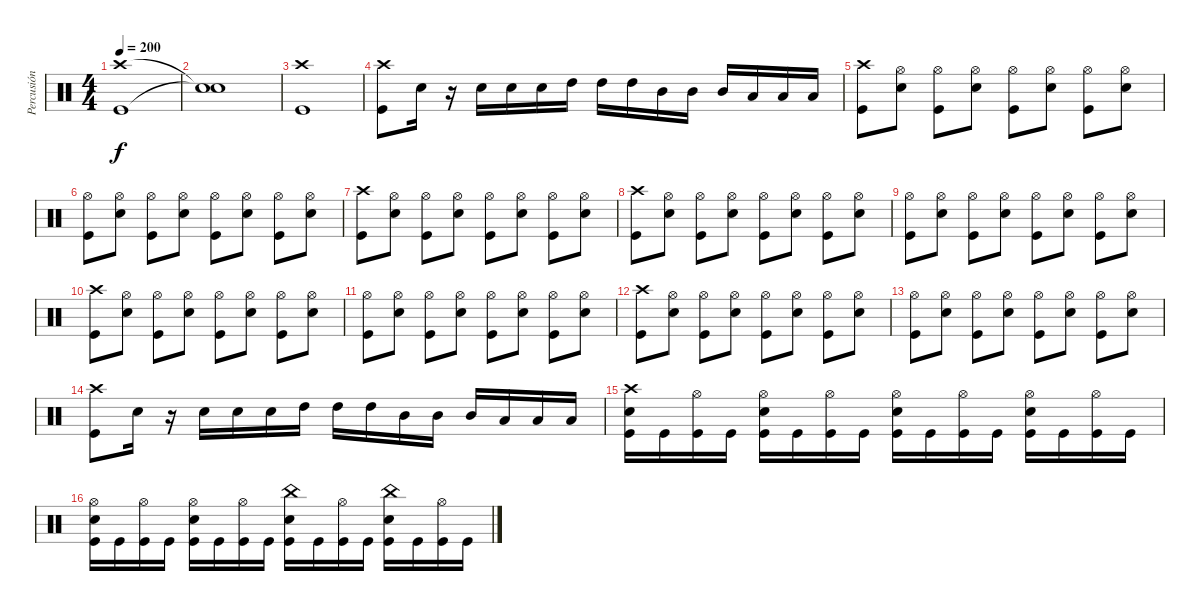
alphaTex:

\track ("Percusión" "Percusión") {instrument percussion}
\staff {score}
\articulation defaults
\ts (4 4)
\tempo 200
\clef neutral
\ks c
("Crash high (hit)" "Kick (hit)").1{dy f} |
("Snare (hit)"{t} "Snare (hit)"{t}).1 |
("Crash high (hit)" "Kick (hit)").1 |
("Crash high (hit)" "Kick (hit)").8 "Snare (hit) 2".16 r.16 "Snare (hit) 2".16 "Snare (hit) 2".16 "Snare (hit) 2".16 "High Tom (hit)".16 "High Tom (hit)".16 "High Tom (hit)".16 "Mid Tom (hit)".16 "Mid Tom (hit)".16 "Mid Tom (hit)".16 "Low Tom (hit)".16 "Low Tom (hit)".16 "Low Tom (hit)".16 |
("Crash high (hit)" "Kick (hit)").8 ("Hi-Hat (open)" "Snare (hit) 2").8 ("Hi-Hat (open)" "Kick (hit)").8 ("Hi-Hat (open)" "Snare (hit) 2").8 ("Hi-Hat (open)" "Kick (hit)").8 ("Hi-Hat (open)" "Snare (hit) 2").8 ("Hi-Hat (open)" "Kick (hit)").8 ("Hi-Hat (open)" "Snare (hit) 2").8 |
("Hi-Hat (open)" "Kick (hit)").8 ("Hi-Hat (open)" "Snare (hit) 2").8 ("Hi-Hat (open)" "Kick (hit)").8 ("Hi-Hat (open)" "Snare (hit) 2").8 ("Hi-Hat (open)" "Kick (hit)").8 ("Hi-Hat (open)" "Snare (hit) 2").8 ("Hi-Hat (open)" "Kick (hit)").8 ("Hi-Hat (open)" "Snare (hit) 2").8 |
("Crash high (hit)" "Kick (hit)").8 ("Hi-Hat (open)" "Snare (hit) 2").8 ("Hi-Hat (open)" "Kick (hit)").8 ("Hi-Hat (open)" "Snare (hit) 2").8 ("Hi-Hat (open)" "Kick (hit)").8 ("Hi-Hat (open)" "Snare (hit) 2").8 ("Hi-Hat (open)" "Kick (hit)").8 ("Hi-Hat (open)" "Snare (hit) 2").8 |
("Crash high (hit)" "Kick (hit)").8 ("Hi-Hat (open)" "Snare (hit) 2").8 ("Hi-Hat (open)" "Kick (hit)").8 ("Hi-Hat (open)" "Snare (hit) 2").8 ("Hi-Hat (open)" "Kick (hit)").8 ("Hi-Hat (open)" "Snare (hit) 2").8 ("Hi-Hat (open)" "Kick (hit)").8 ("Hi-Hat (open)" "Snare (hit) 2").8 |
("Hi-Hat (open)" "Kick (hit)").8 ("Hi-Hat (open)" "Snare (hit) 2").8 ("Hi-Hat (open)" "Kick (hit)").8 ("Hi-Hat (open)" "Snare (hit) 2").8 ("Hi-Hat (open)" "Kick (hit)").8 ("Hi-Hat (open)" "Snare (hit) 2").8 ("Hi-Hat (open)" "Kick (hit)").8 ("Hi-Hat (open)" "Snare (hit) 2").8 |
("Crash high (hit)" "Kick (hit)").8 ("Hi-Hat (open)" "Snare (hit) 2").8 ("Hi-Hat (open)" "Kick (hit)").8 ("Hi-Hat (open)" "Snare (hit) 2").8 ("Hi-Hat (open)" "Kick (hit)").8 ("Hi-Hat (open)" "Snare (hit) 2").8 ("Hi-Hat (open)" "Kick (hit)").8 ("Hi-Hat (open)" "Snare (hit) 2").8 |
("Hi-Hat (open)" "Kick (hit)").8 ("Hi-Hat (open)" "Snare (hit) 2").8 ("Hi-Hat (open)" "Kick (hit)").8 ("Hi-Hat (open)" "Snare (hit) 2").8 ("Hi-Hat (open)" "Kick (hit)").8 ("Hi-Hat (open)" "Snare (hit) 2").8 ("Hi-Hat (open)" "Kick (hit)").8 ("Hi-Hat (open)" "Snare (hit) 2").8 |
("Crash high (hit)" "Kick (hit)").8 ("Hi-Hat (open)" "Snare (hit) 2").8 ("Hi-Hat (open)" "Kick (hit)").8 ("Hi-Hat (open)" "Snare (hit) 2").8 ("Hi-Hat (open)" "Kick (hit)").8 ("Hi-Hat (open)" "Snare (hit) 2").8 ("Hi-Hat (open)" "Kick (hit)").8 ("Hi-Hat (open)" "Snare (hit) 2").8 |
("Hi-Hat (open)" "Kick (hit)").8 ("Hi-Hat (open)" "Snare (hit) 2").8 ("Hi-Hat (open)" "Kick (hit)").8 ("Hi-Hat (open)" "Snare (hit) 2").8 ("Hi-Hat (open)" "Kick (hit)").8 ("Hi-Hat (open)" "Snare (hit) 2").8 ("Hi-Hat (open)" "Kick (hit)").8 ("Hi-Hat (open)" "Snare (hit) 2").8 |
("Crash high (hit)" "Kick (hit)").8 "Snare (hit) 2".16 r.16 "Snare (hit) 2".16 "Snare (hit) 2".16 "Snare (hit) 2".16 "High Tom (hit)".16 "High Tom (hit)".16 "High Tom (hit)".16 "Mid Tom (hit)".16 "Mid Tom (hit)".16 "Mid Tom (hit)".16 "Low Tom (hit)".16 "Low Tom (hit)".16 "Low Tom (hit)".16 |
("Crash high (hit)" "Snare (hit) 2" "Kick (hit)").16 "Kick (hit)".16 ("Hi-Hat (open)" "Kick (hit)").16 "Kick (hit)".16 ("Hi-Hat (open)" "Snare (hit) 2" "Kick (hit)").16 "Kick (hit)".16 ("Hi-Hat (open)" "Kick (hit)").16 "Kick (hit)".16 ("Hi-Hat (open)" "Snare (hit) 2" "Kick (hit)").16 "Kick (hit)".16 ("Hi-Hat (open)" "Kick (hit)").16 "Kick (hit)".16 ("Hi-Hat (open)" "Snare (hit) 2" "Kick (hit)").16 "Kick (hit)".16 ("Hi-Hat (open)" "Kick (hit)").16 "Kick (hit)".16 |
("Hi-Hat (open)" "Snare (hit) 2" "Kick (hit)").16 "Kick (hit)".16 ("Hi-Hat (open)" "Kick (hit)").16 "Kick (hit)".16 ("Hi-Hat (open)" "Snare (hit) 2" "Kick (hit)").16 "Kick (hit)".16 ("Hi-Hat (open)" "Kick (hit)").16 "Kick (hit)".16 ("China (hit)" "Snare (hit) 2" "Kick (hit)").16 "Kick (hit)".16 ("Hi-Hat (open)" "Kick (hit)").16 "Kick (hit)".16 ("China (hit)" "Snare (hit) 2" "Kick (hit)").16 "Kick (hit)".16 ("Hi-Hat (open)" "Kick (hit)").16 "Kick (hit)".16
